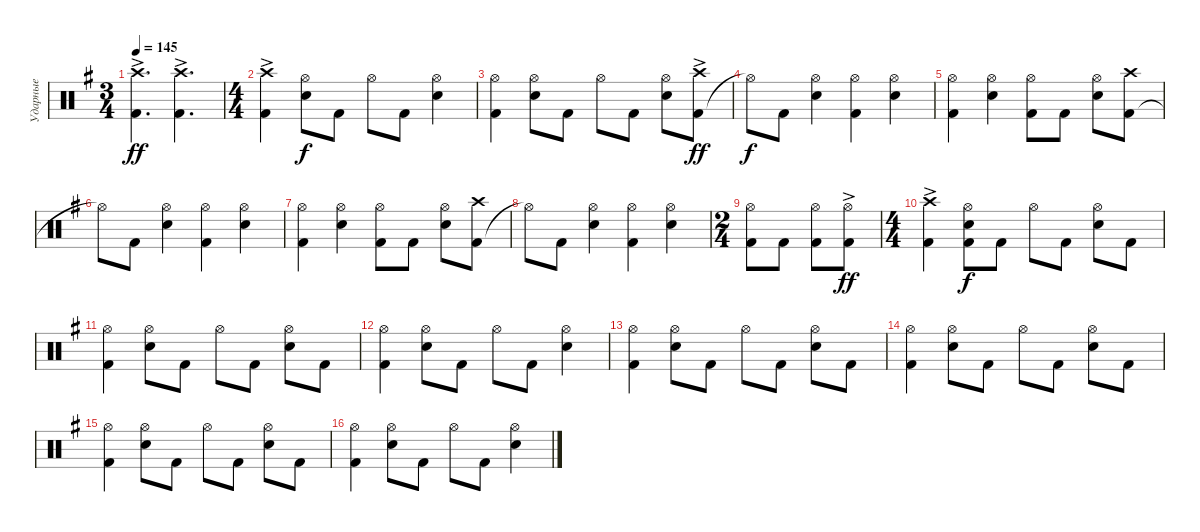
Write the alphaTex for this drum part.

\track ("Ударные" "Ударные") {instrument percussion}
\staff {score}
\articulation defaults
\ts (3 4)
\tempo 145
\clef neutral
\ks g
("Kick (hit) 2" "Crash high (hit)"{ac}).4{d dy ff} ("Kick (hit) 2" "Crash high (hit)"{ac}).4{d} |
\ts (4 4)
("Kick (hit) 2" "Crash high (hit)"{ac}).4 ("Snare (hit) 2" "Hi-Hat (open)").8{dy f} "Kick (hit) 2".8 "Hi-Hat (open)".8 "Kick (hit) 2".8 ("Snare (hit) 2" "Hi-Hat (open)").4 |
("Kick (hit) 2" "Hi-Hat (open)").4 ("Snare (hit) 2" "Hi-Hat (open)").8 "Kick (hit) 2".8 "Hi-Hat (open)".8 "Kick (hit) 2".8 ("Snare (hit) 2" "Hi-Hat (open)").8 ("Kick (hit) 2" "Crash high (hit)"{ac}).8{dy ff} |
"Hi-Hat (open)"{t}.8{dy f} "Kick (hit) 2".8 ("Snare (hit) 2" "Hi-Hat (open)").4 ("Kick (hit) 2" "Hi-Hat (open)").4 ("Snare (hit) 2" "Hi-Hat (open)").4 |
("Kick (hit) 2" "Hi-Hat (open)").4 ("Snare (hit) 2" "Hi-Hat (open)").4 ("Kick (hit) 2" "Hi-Hat (open)").8 "Kick (hit) 2".8 ("Snare (hit) 2" "Hi-Hat (open)").8 ("Kick (hit) 2" "Crash high (hit)").8 |
"Hi-Hat (open)"{t}.8 "Kick (hit) 2".8 ("Snare (hit) 2" "Hi-Hat (open)").4 ("Kick (hit) 2" "Hi-Hat (open)").4 ("Snare (hit) 2" "Hi-Hat (open)").4 |
("Kick (hit) 2" "Hi-Hat (open)").4 ("Snare (hit) 2" "Hi-Hat (open)").4 ("Kick (hit) 2" "Hi-Hat (open)").8 "Kick (hit) 2".8 ("Snare (hit) 2" "Hi-Hat (open)").8 ("Kick (hit) 2" "Crash high (hit)").8 |
"Hi-Hat (open)"{t}.8 "Kick (hit) 2".8 ("Snare (hit) 2" "Hi-Hat (open)").4 ("Kick (hit) 2" "Hi-Hat (open)").4 ("Snare (hit) 2" "Hi-Hat (open)").4 |
\ts (2 4)
("Kick (hit) 2" "Hi-Hat (open)").8 "Kick (hit) 2".8 ("Kick (hit) 2" "Hi-Hat (open)").8 ("Kick (hit) 2" "Hi-Hat (open)"{ac}).8{dy ff} |
\ts (4 4)
("Kick (hit) 2" "Crash high (hit)"{ac}).4 ("Kick (hit) 2" "Snare (hit) 2" "Hi-Hat (open)").8{dy f} "Kick (hit) 2".8 "Hi-Hat (open)".8 "Kick (hit) 2".8 ("Snare (hit) 2" "Hi-Hat (open)").8 "Kick (hit) 2".8 |
("Kick (hit) 2" "Hi-Hat (open)").4 ("Snare (hit) 2" "Hi-Hat (open)").8 "Kick (hit) 2".8 "Hi-Hat (open)".8 "Kick (hit) 2".8 ("Snare (hit) 2" "Hi-Hat (open)").8 "Kick (hit) 2".8 |
("Kick (hit) 2" "Hi-Hat (open)").4 ("Snare (hit) 2" "Hi-Hat (open)").8 "Kick (hit) 2".8 "Hi-Hat (open)".8 "Kick (hit) 2".8 ("Snare (hit) 2" "Hi-Hat (open)").4 |
("Kick (hit) 2" "Hi-Hat (open)").4 ("Snare (hit) 2" "Hi-Hat (open)").8 "Kick (hit) 2".8 "Hi-Hat (open)".8 "Kick (hit) 2".8 ("Snare (hit) 2" "Hi-Hat (open)").8 "Kick (hit) 2".8 |
("Kick (hit) 2" "Hi-Hat (open)").4 ("Snare (hit) 2" "Hi-Hat (open)").8 "Kick (hit) 2".8 "Hi-Hat (open)".8 "Kick (hit) 2".8 ("Snare (hit) 2" "Hi-Hat (open)").8 "Kick (hit) 2".8 |
("Kick (hit) 2" "Hi-Hat (open)").4 ("Snare (hit) 2" "Hi-Hat (open)").8 "Kick (hit) 2".8 "Hi-Hat (open)".8 "Kick (hit) 2".8 ("Snare (hit) 2" "Hi-Hat (open)").8 "Kick (hit) 2".8 |
("Kick (hit) 2" "Hi-Hat (open)").4 ("Snare (hit) 2" "Hi-Hat (open)").8 "Kick (hit) 2".8 "Hi-Hat (open)".8 "Kick (hit) 2".8 ("Snare (hit) 2" "Hi-Hat (open)").4
